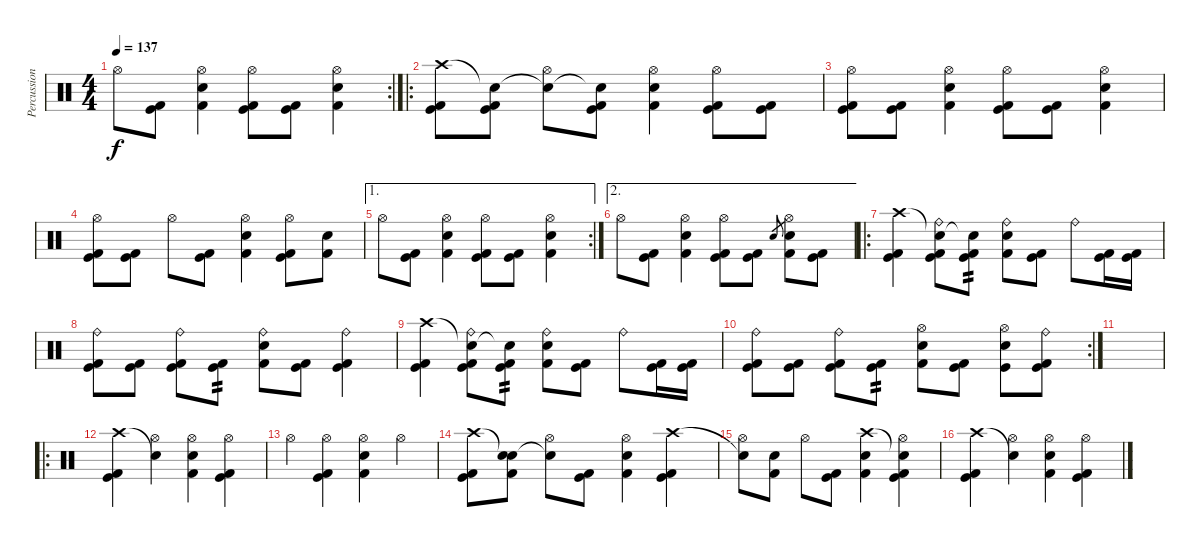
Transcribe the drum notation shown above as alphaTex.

\track ("Percussion" "Percussion") {instrument percussion}
\staff {score}
\articulation defaults
\rc 2
\ts (4 4)
\tempo 137
\clef neutral
\ks c "Hi-Hat (open)".8{dy f}
("Kick (hit) 2" "Kick (hit)").8 ("Hi-Hat (open)" "Snare (hit) 2" "Kick (hit) 2").4 ("Hi-Hat (open)" "Kick (hit) 2" "Kick (hit)").8 ("Kick (hit) 2" "Kick (hit)").8 ("Hi-Hat (open)" "Snare (hit) 2" "Kick (hit) 2").4 |
\ro
("Crash high (hit)" "Kick (hit) 2" "Kick (hit)").8 ("Snare (hit)"{t} "Kick (hit) 2" "Kick (hit)").8 ("Snare (hit)"{t} "Hi-Hat (open)").8 ("Snare (hit)"{t} "Kick (hit) 2" "Kick (hit)").8 ("Hi-Hat (open)" "Snare (hit) 2" "Kick (hit) 2").4 ("Hi-Hat (open)" "Kick (hit) 2" "Kick (hit)").8 ("Kick (hit) 2" "Kick (hit)").8 |
("Hi-Hat (open)" "Kick (hit) 2" "Kick (hit)").8 ("Kick (hit) 2" "Kick (hit)").8 ("Hi-Hat (open)" "Snare (hit) 2" "Kick (hit) 2").4 ("Hi-Hat (open)" "Kick (hit) 2" "Kick (hit)").8 ("Kick (hit) 2" "Kick (hit)").8 ("Hi-Hat (open)" "Snare (hit) 2" "Kick (hit) 2").4 |
("Hi-Hat (open)" "Kick (hit) 2" "Kick (hit)").8 ("Kick (hit) 2" "Kick (hit)").8 "Hi-Hat (open)".8 ("Kick (hit) 2" "Kick (hit)").8 ("Hi-Hat (open)" "Snare (hit) 2" "Kick (hit) 2").4 ("Hi-Hat (open)" "Kick (hit) 2" "Kick (hit)").8 ("Snare (hit) 2" "Kick (hit) 2").8 |
\ae 1
\rc 2 "Hi-Hat (open)".8
("Kick (hit) 2" "Kick (hit)").8 ("Hi-Hat (open)" "Snare (hit) 2" "Kick (hit) 2").4 ("Hi-Hat (open)" "Kick (hit) 2" "Kick (hit)").8 ("Kick (hit) 2" "Kick (hit)").8 ("Hi-Hat (open)" "Snare (hit) 2" "Kick (hit) 2").4 |
\ae 2 "Hi-Hat (open)".8
("Kick (hit) 2" "Kick (hit)").8 ("Hi-Hat (open)" "Snare (hit) 2" "Kick (hit) 2").4 ("Hi-Hat (open)" "Kick (hit) 2" "Kick (hit)").8 ("Kick (hit) 2" "Kick (hit)").8 "Snare (hit) 2".8{gr} ("Hi-Hat (open)" "Snare (hit) 2" "Kick (hit) 2").8 ("Kick (hit) 2" "Kick (hit)").8 |
\ro
("Crash high (hit)" "Kick (hit) 2" "Kick (hit)").4 ("Snare (hit)"{t} "Ride (bell)" "Kick (hit) 2" "Kick (hit)").8 ("Snare (hit)"{t} "Kick (hit) 2" "Kick (hit)").8{tp 2} ("Ride (bell)" "Snare (hit) 2" "Kick (hit) 2").8 ("Kick (hit) 2" "Kick (hit)").8 "Ride (bell)".8 ("Kick (hit) 2" "Kick (hit)").16 ("Kick (hit) 2" "Kick (hit)").16 |
("Ride (bell)" "Kick (hit) 2" "Kick (hit)").8 ("Kick (hit) 2" "Kick (hit)").8 ("Ride (bell)" "Kick (hit)" "Kick (hit) 2").8 ("Kick (hit) 2" "Kick (hit)").8{tp 2} ("Ride (bell)" "Snare (hit) 2" "Kick (hit) 2").8 ("Kick (hit) 2" "Kick (hit)").8 ("Ride (bell)" "Kick (hit) 2" "Kick (hit)").4 |
("Crash high (hit)" "Kick (hit) 2" "Kick (hit)").4 ("Snare (hit)"{t} "Ride (bell)" "Kick (hit) 2" "Kick (hit)").8 ("Snare (hit)"{t} "Kick (hit) 2" "Kick (hit)").8{tp 2} ("Ride (bell)" "Snare (hit) 2" "Kick (hit) 2").8 ("Kick (hit) 2" "Kick (hit)").8 "Ride (bell)".8 ("Kick (hit) 2" "Kick (hit)").16 ("Kick (hit) 2" "Kick (hit)").16 |
\rc 2
("Ride (bell)" "Kick (hit) 2" "Kick (hit)").8 ("Kick (hit) 2" "Kick (hit)").8 ("Ride (bell)" "Kick (hit)" "Kick (hit) 2").8 ("Kick (hit) 2" "Kick (hit)").8{tp 2} ("Hi-Hat (open)" "Snare (hit) 2" "Kick (hit) 2").8 ("Kick (hit) 2" "Kick (hit)").8 ("Hi-Hat (open)" "Snare (hit) 2" "Kick (hit)").8 ("Ride (bell)" "Kick (hit) 2" "Kick (hit)").8 |
|
\ro
("Crash high (hit)" "Kick (hit) 2" "Kick (hit)").4 ("Snare (hit)"{t} "Hi-Hat (open)").4 ("Hi-Hat (open)" "Snare (hit) 2" "Kick (hit) 2").4 ("Hi-Hat (open)" "Kick (hit) 2" "Kick (hit)").4 |
"Hi-Hat (open)".4 ("Hi-Hat (open)" "Kick (hit) 2" "Kick (hit)").4 ("Hi-Hat (open)" "Snare (hit) 2" "Kick (hit) 2").4 "Hi-Hat (open)".4 |
("Crash high (hit)" "Kick (hit) 2" "Kick (hit)").8 ("Snare (hit)"{t} "Snare (hit) 2" "Kick (hit) 2").8 ("Snare (hit)"{t} "Hi-Hat (open)").8 ("Kick (hit) 2" "Kick (hit)").8 ("Hi-Hat (open)" "Snare (hit) 2" "Kick (hit) 2").4 ("Crash high (hit)" "Kick (hit) 2" "Kick (hit)").4 |
("Snare (hit)"{t} "Hi-Hat (open)").8 ("Snare (hit) 2" "Kick (hit) 2").8 "Hi-Hat (open)".8 ("Kick (hit) 2" "Kick (hit)").8 ("Crash high (hit)" "Snare (hit) 2" "Kick (hit) 2").4 ("Snare (hit)"{t} "Hi-Hat (open)" "Kick (hit) 2" "Kick (hit)").4 |
("Crash high (hit)" "Kick (hit) 2" "Kick (hit)").4 ("Snare (hit)"{t} "Hi-Hat (open)").4 ("Hi-Hat (open)" "Snare (hit) 2" "Kick (hit) 2").4 ("Hi-Hat (open)" "Kick (hit) 2" "Kick (hit)").4
